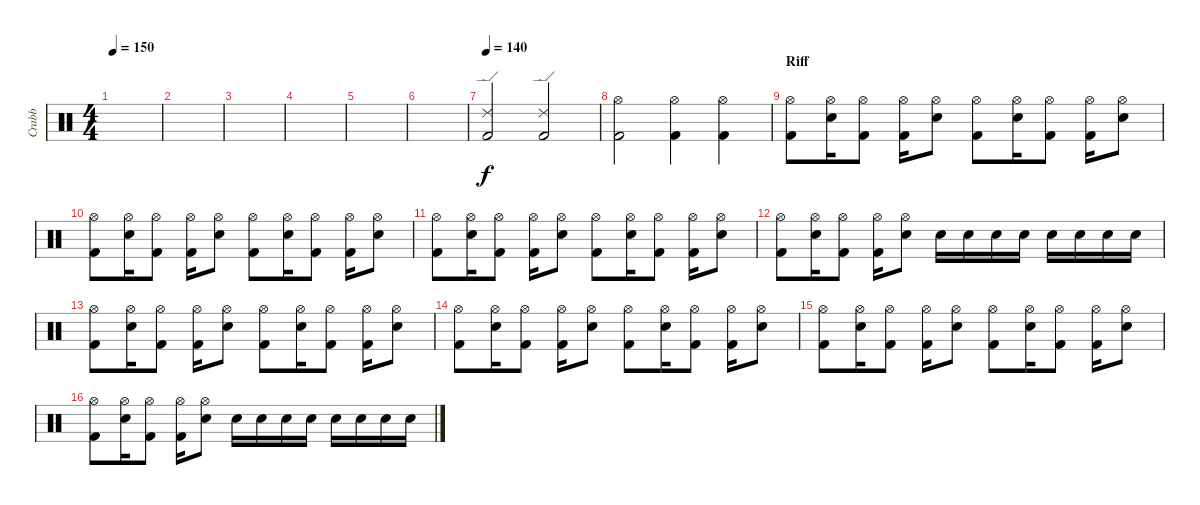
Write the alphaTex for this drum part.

\track ("Crabb" "Crabb") {instrument percussion}
\staff {score}
\articulation defaults
\ts (4 4)
\tempo 150
\clef neutral
\ks c
|
|
|
|
|
|
\tempo 140
("Kick (hit) 2" "Ride (edge) 2").2 ("Kick (hit) 2" "Ride (edge) 2").2 |
("Hi-Hat (open)" "Kick (hit) 2").2 ("Hi-Hat (open)" "Kick (hit) 2").4 ("Hi-Hat (open)" "Kick (hit) 2").4 |
\section ("" "Riff")
("Hi-Hat (open)" "Kick (hit) 2").8 ("Hi-Hat (open)" "Electric Snare (hit)").16 ("Hi-Hat (open)" "Kick (hit) 2").8 ("Hi-Hat (open)" "Kick (hit) 2").16 ("Hi-Hat (open)" "Electric Snare (hit)").8 ("Hi-Hat (open)" "Kick (hit) 2").8 ("Hi-Hat (open)" "Electric Snare (hit)").16 ("Hi-Hat (open)" "Kick (hit) 2").8 ("Hi-Hat (open)" "Kick (hit) 2").16 ("Hi-Hat (open)" "Electric Snare (hit)").8 |
("Hi-Hat (open)" "Kick (hit) 2").8 ("Hi-Hat (open)" "Electric Snare (hit)").16 ("Hi-Hat (open)" "Kick (hit) 2").8 ("Hi-Hat (open)" "Kick (hit) 2").16 ("Hi-Hat (open)" "Electric Snare (hit)").8 ("Hi-Hat (open)" "Kick (hit) 2").8 ("Hi-Hat (open)" "Electric Snare (hit)").16 ("Hi-Hat (open)" "Kick (hit) 2").8 ("Hi-Hat (open)" "Kick (hit) 2").16 ("Hi-Hat (open)" "Electric Snare (hit)").8 |
("Hi-Hat (open)" "Kick (hit) 2").8 ("Hi-Hat (open)" "Electric Snare (hit)").16 ("Hi-Hat (open)" "Kick (hit) 2").8 ("Hi-Hat (open)" "Kick (hit) 2").16 ("Hi-Hat (open)" "Electric Snare (hit)").8 ("Hi-Hat (open)" "Kick (hit) 2").8 ("Hi-Hat (open)" "Electric Snare (hit)").16 ("Hi-Hat (open)" "Kick (hit) 2").8 ("Hi-Hat (open)" "Kick (hit) 2").16 ("Hi-Hat (open)" "Electric Snare (hit)").8 |
("Hi-Hat (open)" "Kick (hit) 2").8 ("Hi-Hat (open)" "Electric Snare (hit)").16 ("Hi-Hat (open)" "Kick (hit) 2").8 ("Hi-Hat (open)" "Kick (hit) 2").16 ("Hi-Hat (open)" "Electric Snare (hit)").8 "Electric Snare (hit)".16 "Electric Snare (hit)".16 "Electric Snare (hit)".16 "Electric Snare (hit)".16 "Electric Snare (hit)".16 "Electric Snare (hit)".16 "Electric Snare (hit)".16 "Electric Snare (hit)".16 |
("Hi-Hat (open)" "Kick (hit) 2").8 ("Hi-Hat (open)" "Electric Snare (hit)").16 ("Hi-Hat (open)" "Kick (hit) 2").8 ("Hi-Hat (open)" "Kick (hit) 2").16 ("Hi-Hat (open)" "Electric Snare (hit)").8 ("Hi-Hat (open)" "Kick (hit) 2").8 ("Hi-Hat (open)" "Electric Snare (hit)").16 ("Hi-Hat (open)" "Kick (hit) 2").8 ("Hi-Hat (open)" "Kick (hit) 2").16 ("Hi-Hat (open)" "Electric Snare (hit)").8 |
("Hi-Hat (open)" "Kick (hit) 2").8 ("Hi-Hat (open)" "Electric Snare (hit)").16 ("Hi-Hat (open)" "Kick (hit) 2").8 ("Hi-Hat (open)" "Kick (hit) 2").16 ("Hi-Hat (open)" "Electric Snare (hit)").8 ("Hi-Hat (open)" "Kick (hit) 2").8 ("Hi-Hat (open)" "Electric Snare (hit)").16 ("Hi-Hat (open)" "Kick (hit) 2").8 ("Hi-Hat (open)" "Kick (hit) 2").16 ("Hi-Hat (open)" "Electric Snare (hit)").8 |
("Hi-Hat (open)" "Kick (hit) 2").8 ("Hi-Hat (open)" "Electric Snare (hit)").16 ("Hi-Hat (open)" "Kick (hit) 2").8 ("Hi-Hat (open)" "Kick (hit) 2").16 ("Hi-Hat (open)" "Electric Snare (hit)").8 ("Hi-Hat (open)" "Kick (hit) 2").8 ("Hi-Hat (open)" "Electric Snare (hit)").16 ("Hi-Hat (open)" "Kick (hit) 2").8 ("Hi-Hat (open)" "Kick (hit) 2").16 ("Hi-Hat (open)" "Electric Snare (hit)").8 |
("Hi-Hat (open)" "Kick (hit) 2").8 ("Hi-Hat (open)" "Electric Snare (hit)").16 ("Hi-Hat (open)" "Kick (hit) 2").8 ("Hi-Hat (open)" "Kick (hit) 2").16 ("Hi-Hat (open)" "Electric Snare (hit)").8 "Electric Snare (hit)".16 "Electric Snare (hit)".16 "Electric Snare (hit)".16 "Electric Snare (hit)".16 "Electric Snare (hit)".16 "Electric Snare (hit)".16 "Electric Snare (hit)".16 "Electric Snare (hit)".16
